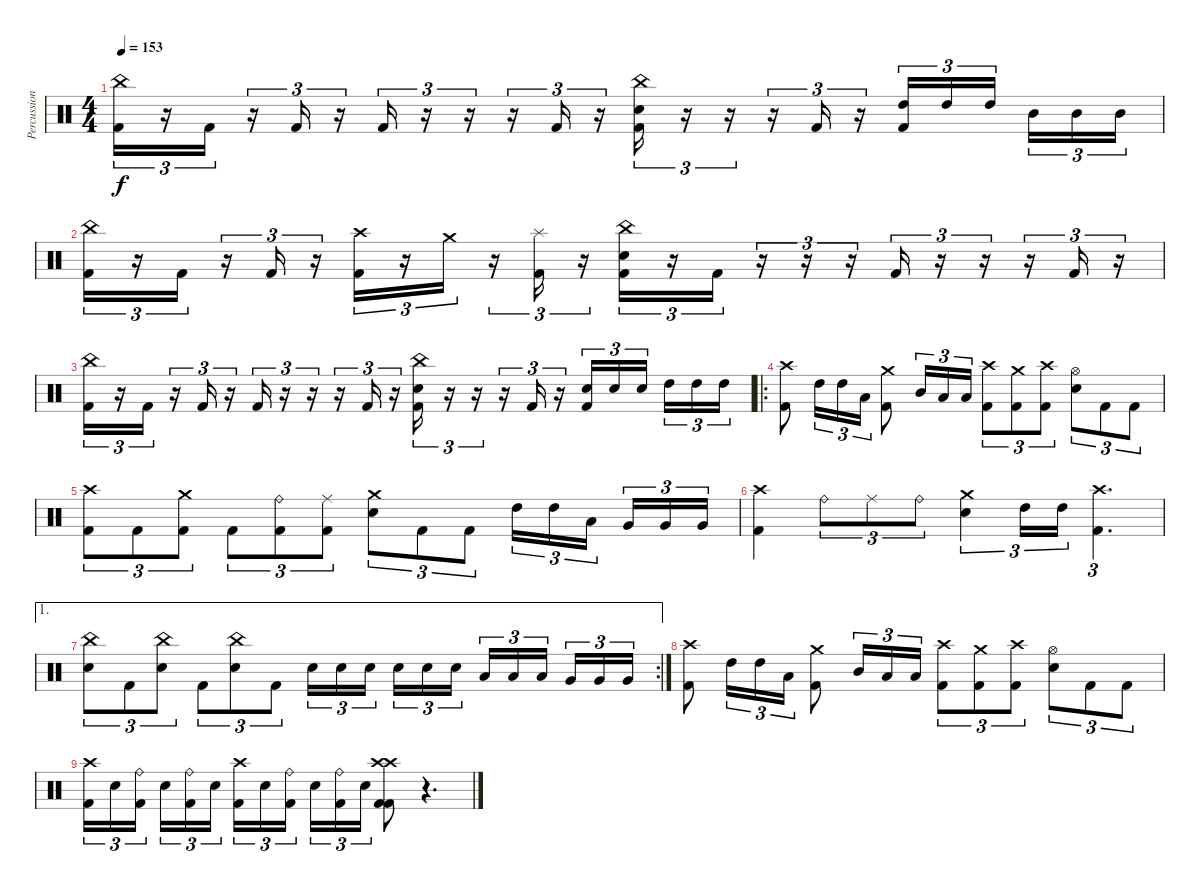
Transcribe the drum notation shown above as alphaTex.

\track ("Percussion" "Percussion") {instrument percussion}
\staff {score}
\articulation defaults
\ts (4 4)
\tempo 153
\clef neutral
\ks c
("China (hit)" "Kick (hit) 2").16{tu (3 2) dy f} r.16{tu (3 2)} "Kick (hit) 2".16{tu (3 2)} r.16{tu (3 2)} "Kick (hit) 2".16{tu (3 2)} r.16{tu (3 2)} "Kick (hit) 2".16{tu (3 2)} r.16{tu (3 2)} r.16{tu (3 2)} r.16{tu (3 2)} "Kick (hit) 2".16{tu (3 2)} r.16{tu (3 2)} ("China (hit)" "Electric Snare (hit)" "Kick (hit) 2").16{tu (3 2)} r.16{tu (3 2)} r.16{tu (3 2)} r.16{tu (3 2)} "Kick (hit) 2".16{tu (3 2)} r.16{tu (3 2)} ("High Tom (hit)" "Kick (hit) 2").16{tu (3 2)} "High Tom (hit)".16{tu (3 2)} "High Tom (hit)".16{tu (3 2) beam splitsecondary} "Mid Tom (hit)".16{tu (3 2)} "Mid Tom (hit)".16{tu (3 2)} "Mid Tom (hit)".16{tu (3 2)} |
("China (hit)" "Kick (hit) 2").16{tu (3 2)} r.16{tu (3 2)} "Kick (hit) 2".16{tu (3 2)} r.16{tu (3 2)} "Kick (hit) 2".16{tu (3 2)} r.16{tu (3 2)} ("Crash high (hit)" "Kick (hit) 2").16{tu (3 2)} r.16{tu (3 2)} "Crash medium (hit)".16{tu (3 2)} r.16{tu (3 2)} ("Splash (hit)" "Kick (hit) 2").16{tu (3 2)} r.16{tu (3 2)} ("China (hit)" "Electric Snare (hit)" "Kick (hit) 2").16{tu (3 2)} r.16{tu (3 2)} "Kick (hit) 2".16{tu (3 2)} r.16{tu (3 2)} r.16{tu (3 2)} r.16{tu (3 2)} "Kick (hit) 2".16{tu (3 2)} r.16{tu (3 2)} r.16{tu (3 2)} r.16{tu (3 2)} "Kick (hit) 2".16{tu (3 2)} r.16{tu (3 2)} |
("China (hit)" "Kick (hit) 2").16{tu (3 2)} r.16{tu (3 2)} "Kick (hit) 2".16{tu (3 2)} r.16{tu (3 2)} "Kick (hit) 2".16{tu (3 2)} r.16{tu (3 2)} "Kick (hit) 2".16{tu (3 2)} r.16{tu (3 2)} r.16{tu (3 2)} r.16{tu (3 2)} "Kick (hit) 2".16{tu (3 2)} r.16{tu (3 2)} ("China (hit)" "Electric Snare (hit)" "Kick (hit) 2").16{tu (3 2)} r.16{tu (3 2)} r.16{tu (3 2)} r.16{tu (3 2)} "Kick (hit) 2".16{tu (3 2)} r.16{tu (3 2)} ("Electric Snare (hit)" "Kick (hit) 2").16{tu (3 2)} "Electric Snare (hit)".16{tu (3 2)} "Electric Snare (hit)".16{tu (3 2) beam splitsecondary} "High Tom (hit)".16{tu (3 2)} "High Tom (hit)".16{tu (3 2)} "High Tom (hit)".16{tu (3 2)} |
\ro
("Crash high (hit)" "Kick (hit) 2").8 "High Tom (hit)".16{tu (3 2)} "High Tom (hit)".16{tu (3 2)} "Low Tom (hit)".16{tu (3 2)} ("Crash medium (hit)" "Kick (hit) 2").8 "Mid Tom (hit)".16{tu (3 2)} "Low Tom (hit)".16{tu (3 2)} "Low Tom (hit)".16{tu (3 2)} ("Crash high (hit)" "Kick (hit) 2").8{tu (3 2)} ("Crash medium (hit)" "Kick (hit) 2").8{tu (3 2)} ("Crash high (hit)" "Kick (hit) 2").8{tu (3 2)} ("Hi-Hat (open)" "Snare (hit) 2").8{tu (3 2)} "Kick (hit) 2".8{tu (3 2)} "Kick (hit) 2".8{tu (3 2)} |
("Crash high (hit)" "Kick (hit) 2").8{tu (3 2)} "Kick (hit) 2".8{tu (3 2)} ("Crash medium (hit)" "Kick (hit) 2").8{tu (3 2)} "Kick (hit) 2".8{tu (3 2)} ("Ride (bell)" "Kick (hit) 2").8{tu (3 2)} ("Ride (middle)" "Kick (hit) 2").8{tu (3 2)} ("Crash medium (hit)" "Snare (hit) 2").8{tu (3 2)} "Kick (hit) 2".8{tu (3 2)} "Kick (hit) 2".8{tu (3 2)} "High Tom (hit)".16{tu (3 2)} "High Tom (hit)".16{tu (3 2)} "Low Tom (hit)".16{tu (3 2) beam splitsecondary} "Very Low Tom (hit)".16{tu (3 2)} "Very Low Tom (hit)".16{tu (3 2)} "Very Low Tom (hit)".16{tu (3 2)} |
("Crash high (hit)" "Kick (hit) 2").4 "Ride (bell)".8{tu (3 2)} "Ride (middle)".8{tu (3 2)} "Ride (bell)".8{tu (3 2)} ("Crash medium (hit)" "Snare (hit) 2").4{tu (3 2)} "High Tom (hit)".16{tu (3 2)} "High Tom (hit)".16{tu (3 2)} ("Crash high (hit)" "Kick (hit) 2").4{d tu (3 2)} |
\ae 1
\rc 2
("China (hit)" "Snare (hit) 2").8{tu (3 2)} "Kick (hit) 2".8{tu (3 2)} ("China (hit)" "Snare (hit) 2").8{tu (3 2)} "Kick (hit) 2".8{tu (3 2)} ("China (hit)" "Snare (hit) 2").8{tu (3 2)} "Kick (hit) 2".8{tu (3 2)} "Snare (hit) 2".16{tu (3 2)} "Snare (hit) 2".16{tu (3 2)} "Snare (hit) 2".16{tu (3 2) beam splitsecondary} "Snare (hit) 2".16{tu (3 2)} "Snare (hit) 2".16{tu (3 2)} "Snare (hit) 2".16{tu (3 2)} "Low Tom (hit)".16{tu (3 2)} "Low Tom (hit)".16{tu (3 2)} "Low Tom (hit)".16{tu (3 2) beam splitsecondary} "Very Low Tom (hit)".16{tu (3 2)} "Very Low Tom (hit)".16{tu (3 2)} "Very Low Tom (hit)".16{tu (3 2)} |
("Crash high (hit)" "Kick (hit) 2").8 "High Tom (hit)".16{tu (3 2)} "High Tom (hit)".16{tu (3 2)} "Low Tom (hit)".16{tu (3 2)} ("Crash medium (hit)" "Kick (hit) 2").8 "Mid Tom (hit)".16{tu (3 2)} "Low Tom (hit)".16{tu (3 2)} "Low Tom (hit)".16{tu (3 2)} ("Crash high (hit)" "Kick (hit) 2").8{tu (3 2)} ("Crash medium (hit)" "Kick (hit) 2").8{tu (3 2)} ("Crash high (hit)" "Kick (hit) 2").8{tu (3 2)} ("Hi-Hat (open)" "Snare (hit) 2").8{tu (3 2)} "Kick (hit) 2".8{tu (3 2)} "Kick (hit) 2".8{tu (3 2)} |
("Crash high (hit)" "Kick (hit) 2").16{tu (3 2)} "Snare (hit) 2".16{tu (3 2)} ("Ride (bell)" "Kick (hit) 2").16{tu (3 2) beam splitsecondary} "Snare (hit) 2".16{tu (3 2)} ("Ride (bell)" "Kick (hit) 2").16{tu (3 2)} "Snare (hit) 2".16{tu (3 2)} ("Crash high (hit)" "Kick (hit) 2").16{tu (3 2)} "Snare (hit) 2".16{tu (3 2)} ("Ride (bell)" "Kick (hit) 2").16{tu (3 2) beam splitsecondary} "Snare (hit) 2".16{tu (3 2)} ("Ride (bell)" "Kick (hit) 2").16{tu (3 2)} "Snare (hit) 2".16{tu (3 2)} ("Crash high (hit)" "Crash high (hit)" "Kick (hit) 2" "Kick (hit) 2").8{volume 16} r.4{d volume 0}
